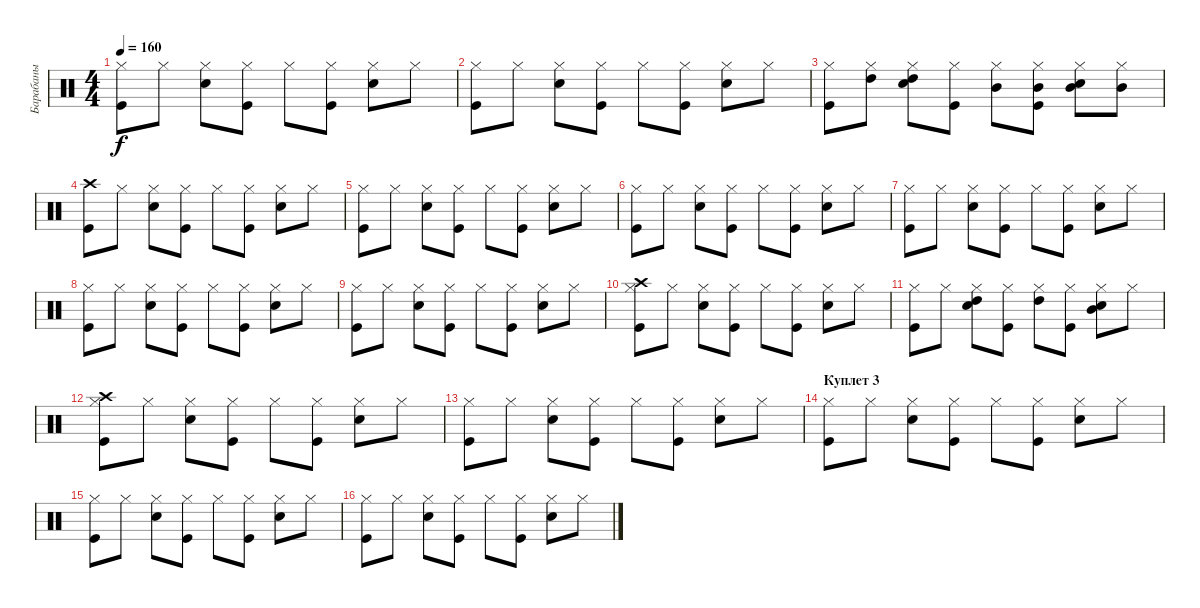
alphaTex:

\track ("Барабаны" "Барабаны") {instrument percussion}
\staff {score}
\articulation defaults
\ts (4 4)
\tempo 160
\clef neutral
\ks c
("Kick (hit)" "Hi-Hat (closed)").8{dy f} "Hi-Hat (closed)".8 ("Snare (hit) 2" "Hi-Hat (closed)").8 ("Kick (hit)" "Hi-Hat (closed)").8 "Hi-Hat (closed)".8 ("Kick (hit)" "Hi-Hat (closed)").8 ("Snare (hit) 2" "Hi-Hat (closed)").8 "Hi-Hat (closed)".8 |
("Kick (hit)" "Hi-Hat (closed)").8 "Hi-Hat (closed)".8 ("Snare (hit) 2" "Hi-Hat (closed)").8 ("Kick (hit)" "Hi-Hat (closed)").8 "Hi-Hat (closed)".8 ("Kick (hit)" "Hi-Hat (closed)").8 ("Snare (hit) 2" "Hi-Hat (closed)").8 "Hi-Hat (closed)".8 |
("Kick (hit)" "Hi-Hat (closed)").8 ("High Tom (hit)" "Hi-Hat (closed)").8 ("Snare (hit) 2" "High Tom (hit)" "Hi-Hat (closed)").8 ("Kick (hit)" "Hi-Hat (closed)").8 ("Mid Tom (hit)" "Hi-Hat (closed)").8 ("Kick (hit)" "Mid Tom (hit)" "Hi-Hat (closed)").8 ("Snare (hit) 2" "Mid Tom (hit)" "Hi-Hat (closed)").8 ("Mid Tom (hit)" "Hi-Hat (closed)").8 |
("Kick (hit)" "Crash high (hit)").8 "Hi-Hat (closed)".8 ("Snare (hit) 2" "Hi-Hat (closed)").8 ("Kick (hit)" "Hi-Hat (closed)").8 "Hi-Hat (closed)".8 ("Kick (hit)" "Hi-Hat (closed)").8 ("Snare (hit) 2" "Hi-Hat (closed)").8 "Hi-Hat (closed)".8 |
("Kick (hit)" "Hi-Hat (closed)").8 "Hi-Hat (closed)".8 ("Snare (hit) 2" "Hi-Hat (closed)").8 ("Kick (hit)" "Hi-Hat (closed)").8 "Hi-Hat (closed)".8 ("Kick (hit)" "Hi-Hat (closed)").8 ("Snare (hit) 2" "Hi-Hat (closed)").8 "Hi-Hat (closed)".8 |
("Kick (hit)" "Hi-Hat (closed)").8 "Hi-Hat (closed)".8 ("Snare (hit) 2" "Hi-Hat (closed)").8 ("Kick (hit)" "Hi-Hat (closed)").8 "Hi-Hat (closed)".8 ("Kick (hit)" "Hi-Hat (closed)").8 ("Snare (hit) 2" "Hi-Hat (closed)").8 "Hi-Hat (closed)".8 |
("Kick (hit)" "Hi-Hat (closed)").8 "Hi-Hat (closed)".8 ("Snare (hit) 2" "Hi-Hat (closed)").8 ("Kick (hit)" "Hi-Hat (closed)").8 "Hi-Hat (closed)".8 ("Kick (hit)" "Hi-Hat (closed)").8 ("Snare (hit) 2" "Hi-Hat (closed)").8 "Hi-Hat (closed)".8 |
("Kick (hit)" "Hi-Hat (closed)").8 "Hi-Hat (closed)".8 ("Snare (hit) 2" "Hi-Hat (closed)").8 ("Kick (hit)" "Hi-Hat (closed)").8 "Hi-Hat (closed)".8 ("Kick (hit)" "Hi-Hat (closed)").8 ("Snare (hit) 2" "Hi-Hat (closed)").8 "Hi-Hat (closed)".8 |
("Kick (hit)" "Hi-Hat (closed)").8 "Hi-Hat (closed)".8 ("Snare (hit) 2" "Hi-Hat (closed)").8 ("Kick (hit)" "Hi-Hat (closed)").8 "Hi-Hat (closed)".8 ("Kick (hit)" "Hi-Hat (closed)").8 ("Snare (hit) 2" "Hi-Hat (closed)").8 "Hi-Hat (closed)".8 |
("Kick (hit)" "Crash high (hit)" "Hi-Hat (closed)").8 "Hi-Hat (closed)".8 ("Snare (hit) 2" "Hi-Hat (closed)").8 ("Kick (hit)" "Hi-Hat (closed)").8 "Hi-Hat (closed)".8 ("Kick (hit)" "Hi-Hat (closed)").8 ("Snare (hit) 2" "Hi-Hat (closed)").8 "Hi-Hat (closed)".8 |
("Kick (hit)" "Hi-Hat (closed)").8 "Hi-Hat (closed)".8 ("Snare (hit) 2" "High Tom (hit)" "Hi-Hat (closed)").8 ("Kick (hit)" "Hi-Hat (closed)").8 ("High Tom (hit)" "Hi-Hat (closed)").8 ("Kick (hit)" "Hi-Hat (closed)").8 ("Snare (hit) 2" "Mid Tom (hit)" "Hi-Hat (closed)").8 "Hi-Hat (closed)".8 |
("Kick (hit)" "Crash high (hit)" "Hi-Hat (closed)").8 "Hi-Hat (closed)".8 ("Snare (hit) 2" "Hi-Hat (closed)").8 ("Kick (hit)" "Hi-Hat (closed)").8 "Hi-Hat (closed)".8 ("Kick (hit)" "Hi-Hat (closed)").8 ("Snare (hit) 2" "Hi-Hat (closed)").8 "Hi-Hat (closed)".8 |
("Kick (hit)" "Hi-Hat (closed)").8 "Hi-Hat (closed)".8 ("Snare (hit) 2" "Hi-Hat (closed)").8 ("Kick (hit)" "Hi-Hat (closed)").8 "Hi-Hat (closed)".8 ("Kick (hit)" "Hi-Hat (closed)").8 ("Snare (hit) 2" "Hi-Hat (closed)").8 "Hi-Hat (closed)".8 |
\section ("" "Куплет 3")
("Kick (hit)" "Hi-Hat (closed)").8 "Hi-Hat (closed)".8 ("Snare (hit) 2" "Hi-Hat (closed)").8 ("Kick (hit)" "Hi-Hat (closed)").8 "Hi-Hat (closed)".8 ("Kick (hit)" "Hi-Hat (closed)").8 ("Snare (hit) 2" "Hi-Hat (closed)").8 "Hi-Hat (closed)".8 |
("Kick (hit)" "Hi-Hat (closed)").8 "Hi-Hat (closed)".8 ("Snare (hit) 2" "Hi-Hat (closed)").8 ("Kick (hit)" "Hi-Hat (closed)").8 "Hi-Hat (closed)".8 ("Kick (hit)" "Hi-Hat (closed)").8 ("Snare (hit) 2" "Hi-Hat (closed)").8 "Hi-Hat (closed)".8 |
("Kick (hit)" "Hi-Hat (closed)").8 "Hi-Hat (closed)".8 ("Snare (hit) 2" "Hi-Hat (closed)").8 ("Kick (hit)" "Hi-Hat (closed)").8 "Hi-Hat (closed)".8 ("Kick (hit)" "Hi-Hat (closed)").8 ("Snare (hit) 2" "Hi-Hat (closed)").8 "Hi-Hat (closed)".8
